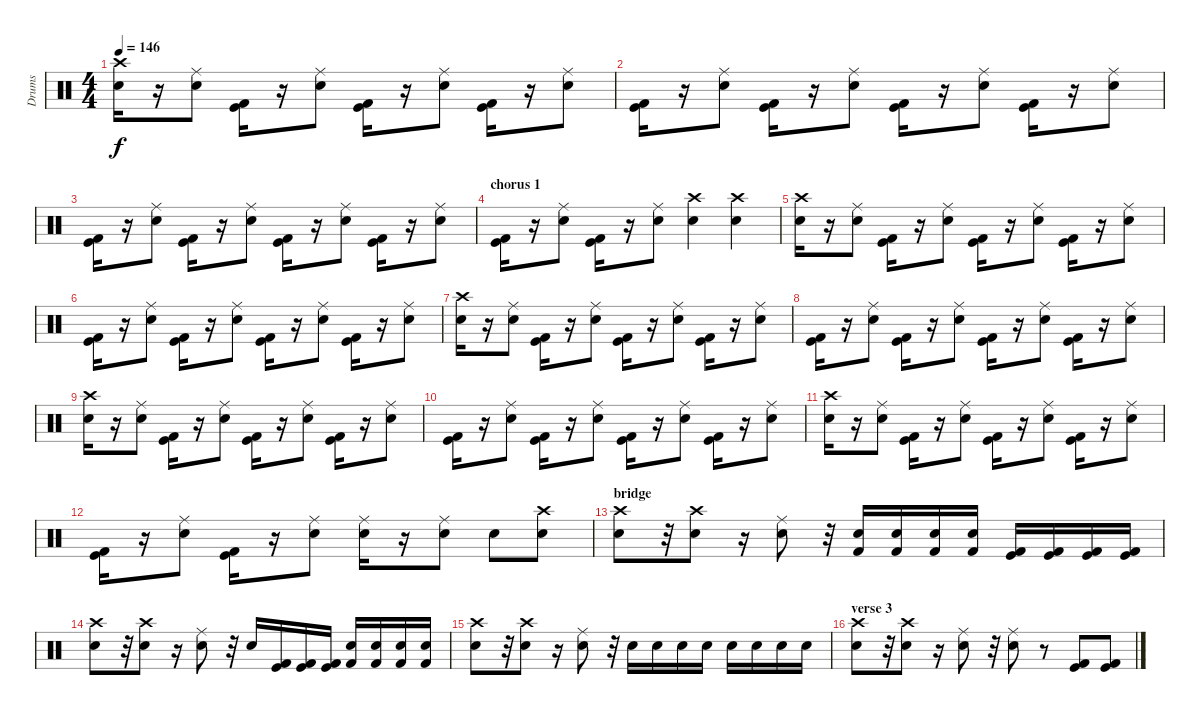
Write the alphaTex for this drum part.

\track ("Drums" "Drums") {instrument percussion}
\staff {score}
\articulation defaults
\ts (4 4)
\tempo 146
\clef neutral
\ks c
("Crash high (hit)" "Electric Snare (hit)").16{dy f} r.16 ("Ride (middle)" "Electric Snare (hit)").8 ("Kick (hit)" "Kick (hit) 2").16 r.16 ("Ride (middle)" "Electric Snare (hit)").8 ("Kick (hit)" "Kick (hit) 2").16 r.16 ("Ride (middle)" "Electric Snare (hit)").8 ("Kick (hit)" "Kick (hit) 2").16 r.16 ("Ride (middle)" "Electric Snare (hit)").8 |
("Kick (hit)" "Kick (hit) 2").16 r.16 ("Ride (middle)" "Electric Snare (hit)").8 ("Kick (hit)" "Kick (hit) 2").16 r.16 ("Ride (middle)" "Electric Snare (hit)").8 ("Kick (hit)" "Kick (hit) 2").16 r.16 ("Ride (middle)" "Electric Snare (hit)").8 ("Kick (hit)" "Kick (hit) 2").16 r.16 ("Ride (middle)" "Electric Snare (hit)").8 |
("Kick (hit)" "Kick (hit) 2").16 r.16 ("Ride (middle)" "Electric Snare (hit)").8 ("Kick (hit)" "Kick (hit) 2").16 r.16 ("Ride (middle)" "Electric Snare (hit)").8 ("Kick (hit)" "Kick (hit) 2").16 r.16 ("Ride (middle)" "Electric Snare (hit)").8 ("Kick (hit)" "Kick (hit) 2").16 r.16 ("Ride (middle)" "Electric Snare (hit)").8 |
\section ("" "chorus 1")
("Kick (hit)" "Kick (hit) 2").16 r.16 ("Ride (middle)" "Electric Snare (hit)").8 ("Kick (hit)" "Kick (hit) 2").16 r.16 ("Ride (middle)" "Electric Snare (hit)").8 ("Crash high (hit)" "Electric Snare (hit)").4 ("Crash high (hit)" "Electric Snare (hit)").4 |
("Crash high (hit)" "Electric Snare (hit)").16 r.16 ("Ride (middle)" "Electric Snare (hit)").8 ("Kick (hit)" "Kick (hit) 2").16 r.16 ("Ride (middle)" "Electric Snare (hit)").8 ("Kick (hit)" "Kick (hit) 2").16 r.16 ("Ride (middle)" "Electric Snare (hit)").8 ("Kick (hit)" "Kick (hit) 2").16 r.16 ("Ride (middle)" "Electric Snare (hit)").8 |
("Kick (hit)" "Kick (hit) 2").16 r.16 ("Ride (middle)" "Electric Snare (hit)").8 ("Kick (hit)" "Kick (hit) 2").16 r.16 ("Ride (middle)" "Electric Snare (hit)").8 ("Kick (hit)" "Kick (hit) 2").16 r.16 ("Ride (middle)" "Electric Snare (hit)").8 ("Kick (hit)" "Kick (hit) 2").16 r.16 ("Ride (middle)" "Electric Snare (hit)").8 |
("Crash high (hit)" "Electric Snare (hit)").16 r.16 ("Ride (middle)" "Electric Snare (hit)").8 ("Kick (hit)" "Kick (hit) 2").16 r.16 ("Ride (middle)" "Electric Snare (hit)").8 ("Kick (hit)" "Kick (hit) 2").16 r.16 ("Ride (middle)" "Electric Snare (hit)").8 ("Kick (hit)" "Kick (hit) 2").16 r.16 ("Ride (middle)" "Electric Snare (hit)").8 |
("Kick (hit)" "Kick (hit) 2").16 r.16 ("Ride (middle)" "Electric Snare (hit)").8 ("Kick (hit)" "Kick (hit) 2").16 r.16 ("Ride (middle)" "Electric Snare (hit)").8 ("Kick (hit)" "Kick (hit) 2").16 r.16 ("Ride (middle)" "Electric Snare (hit)").8 ("Kick (hit)" "Kick (hit) 2").16 r.16 ("Ride (middle)" "Electric Snare (hit)").8 |
("Crash high (hit)" "Electric Snare (hit)").16 r.16 ("Ride (middle)" "Electric Snare (hit)").8 ("Kick (hit)" "Kick (hit) 2").16 r.16 ("Ride (middle)" "Electric Snare (hit)").8 ("Kick (hit)" "Kick (hit) 2").16 r.16 ("Ride (middle)" "Electric Snare (hit)").8 ("Kick (hit)" "Kick (hit) 2").16 r.16 ("Ride (middle)" "Electric Snare (hit)").8 |
("Kick (hit)" "Kick (hit) 2").16 r.16 ("Ride (middle)" "Electric Snare (hit)").8 ("Kick (hit)" "Kick (hit) 2").16 r.16 ("Ride (middle)" "Electric Snare (hit)").8 ("Kick (hit)" "Kick (hit) 2").16 r.16 ("Ride (middle)" "Electric Snare (hit)").8 ("Kick (hit)" "Kick (hit) 2").16 r.16 ("Ride (middle)" "Electric Snare (hit)").8 |
("Crash high (hit)" "Electric Snare (hit)").16 r.16 ("Ride (middle)" "Electric Snare (hit)").8 ("Kick (hit)" "Kick (hit) 2").16 r.16 ("Ride (middle)" "Electric Snare (hit)").8 ("Kick (hit)" "Kick (hit) 2").16 r.16 ("Ride (middle)" "Electric Snare (hit)").8 ("Kick (hit)" "Kick (hit) 2").16 r.16 ("Ride (middle)" "Electric Snare (hit)").8 |
("Kick (hit)" "Kick (hit) 2").16 r.16 ("Ride (middle)" "Electric Snare (hit)").8 ("Kick (hit)" "Kick (hit) 2").16 r.16 ("Ride (middle)" "Electric Snare (hit)").8 ("Ride (middle)" "Electric Snare (hit)").16 r.16 ("Ride (middle)" "Electric Snare (hit)").8 "Electric Snare (hit)"{tr (40 16)}.8 ("Crash high (hit)" "Electric Snare (hit)").8 |
\section ("" "bridge")
("Crash high (hit)" "Electric Snare (hit)").8 r.32 ("Crash high (hit)" "Electric Snare (hit)").8 r.16 ("Ride (middle)" "Electric Snare (hit)").8 r.32 ("Electric Snare (hit)" "Kick (hit) 2").16 ("Electric Snare (hit)" "Kick (hit) 2").16 ("Electric Snare (hit)" "Kick (hit) 2").16 ("Electric Snare (hit)" "Kick (hit) 2").16 ("Kick (hit)" "Kick (hit) 2").16 ("Kick (hit)" "Kick (hit) 2").16 ("Kick (hit)" "Kick (hit) 2").16 ("Kick (hit)" "Kick (hit) 2").16 |
("Crash high (hit)" "Electric Snare (hit)").8 r.32 ("Crash high (hit)" "Electric Snare (hit)").8 r.16 ("Ride (middle)" "Electric Snare (hit)").8 r.32 "Electric Snare (hit)".16 ("Kick (hit)" "Kick (hit) 2").16 ("Kick (hit)" "Kick (hit) 2").16 ("Kick (hit)" "Kick (hit) 2").16 ("Electric Snare (hit)" "Kick (hit) 2").16 ("Electric Snare (hit)" "Kick (hit) 2").16 ("Electric Snare (hit)" "Kick (hit) 2").16 ("Electric Snare (hit)" "Kick (hit) 2").16 |
("Crash high (hit)" "Electric Snare (hit)").8 r.32 ("Crash high (hit)" "Electric Snare (hit)").8 r.16 ("Ride (middle)" "Electric Snare (hit)").8 r.32 "Electric Snare (hit)".16 "Electric Snare (hit)".16 "Electric Snare (hit)".16 "Electric Snare (hit)".16 "Electric Snare (hit)".16 "Electric Snare (hit)".16 "Electric Snare (hit)".16 "Electric Snare (hit)".16 |
\section ("" "verse 3")
("Crash high (hit)" "Electric Snare (hit)").8 r.32 ("Crash high (hit)" "Electric Snare (hit)").8 r.16 ("Ride (middle)" "Electric Snare (hit)").8 r.32 ("Ride (middle)" "Electric Snare (hit)").8 r.8 ("Kick (hit)" "Kick (hit) 2").8 ("Kick (hit)" "Kick (hit) 2").8
